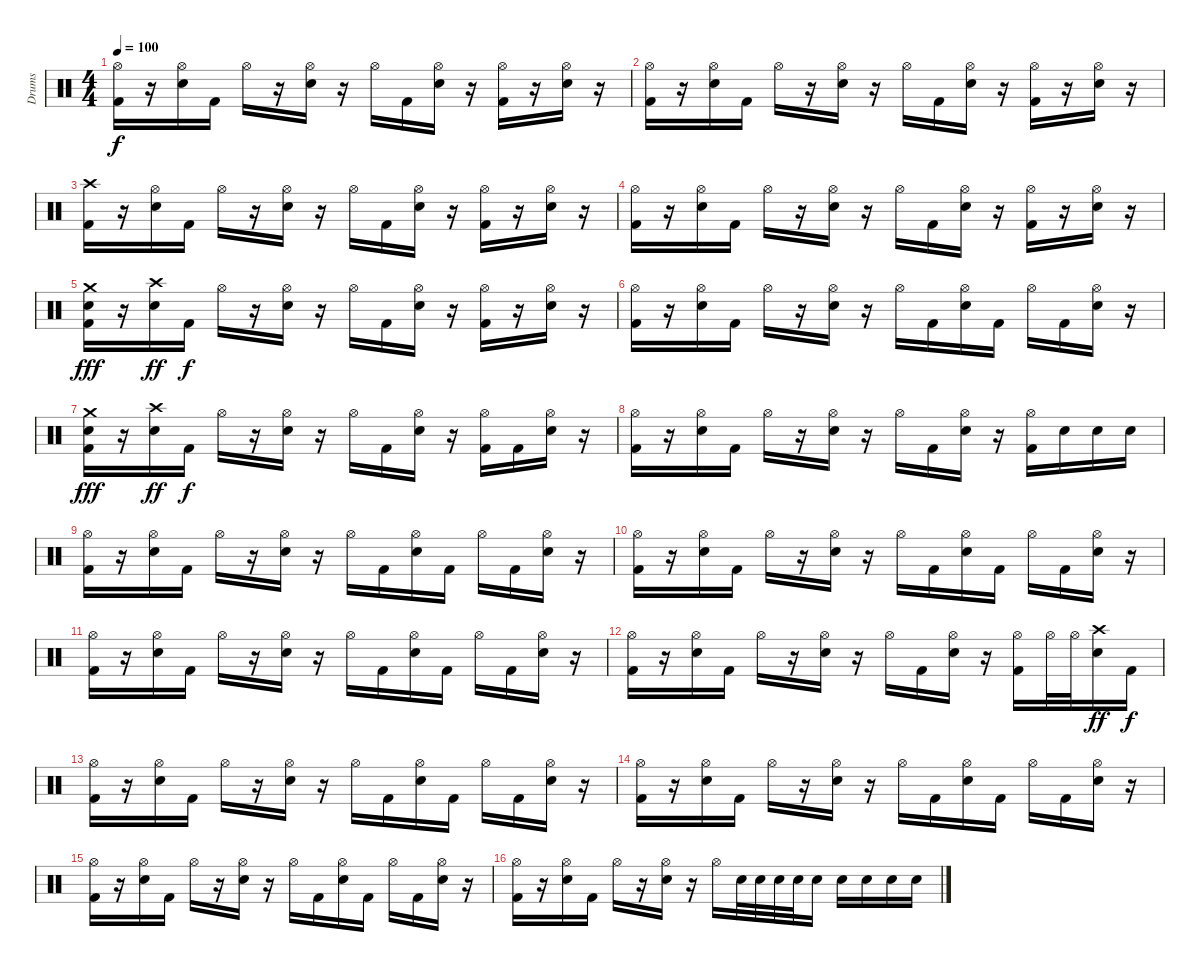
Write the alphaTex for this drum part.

\track ("Drums" "Drums") {instrument percussion}
\staff {score}
\articulation defaults
\ts (4 4)
\tempo 100
\clef neutral
\ks c
("Hi-Hat (open)" "Kick (hit) 2").16{dy f} r.16 ("Hi-Hat (open)" "Electric Snare (hit)").16 "Kick (hit) 2".16 "Hi-Hat (open)".16 r.16 ("Hi-Hat (open)" "Electric Snare (hit)").16 r.16 "Hi-Hat (open)".16 "Kick (hit) 2".16 ("Hi-Hat (open)" "Electric Snare (hit)").16 r.16 ("Hi-Hat (open)" "Kick (hit) 2").16 r.16 ("Hi-Hat (open)" "Electric Snare (hit)").16 r.16 |
("Hi-Hat (open)" "Kick (hit) 2").16 r.16 ("Hi-Hat (open)" "Electric Snare (hit)").16 "Kick (hit) 2".16 "Hi-Hat (open)".16 r.16 ("Hi-Hat (open)" "Electric Snare (hit)").16 r.16 "Hi-Hat (open)".16 "Kick (hit) 2".16 ("Hi-Hat (open)" "Electric Snare (hit)").16 r.16 ("Hi-Hat (open)" "Kick (hit) 2").16 r.16 ("Hi-Hat (open)" "Electric Snare (hit)").16 r.16 |
("Crash high (hit)" "Kick (hit) 2").16 r.16 ("Hi-Hat (open)" "Electric Snare (hit)").16 "Kick (hit) 2".16 "Hi-Hat (open)".16 r.16 ("Hi-Hat (open)" "Electric Snare (hit)").16 r.16 "Hi-Hat (open)".16 "Kick (hit) 2".16 ("Hi-Hat (open)" "Electric Snare (hit)").16 r.16 ("Hi-Hat (open)" "Kick (hit) 2").16 r.16 ("Hi-Hat (open)" "Electric Snare (hit)").16 r.16 |
("Hi-Hat (open)" "Kick (hit) 2").16 r.16 ("Hi-Hat (open)" "Electric Snare (hit)").16 "Kick (hit) 2".16 "Hi-Hat (open)".16 r.16 ("Hi-Hat (open)" "Electric Snare (hit)").16 r.16 "Hi-Hat (open)".16 "Kick (hit) 2".16 ("Hi-Hat (open)" "Electric Snare (hit)").16 r.16 ("Hi-Hat (open)" "Kick (hit) 2").16 r.16 ("Hi-Hat (open)" "Electric Snare (hit)").16 r.16 |
("Crash medium (hit)" "Electric Snare (hit)" "Kick (hit) 2").16{dy fff} r.16 ("Crash high (hit)" "Electric Snare (hit)").16{dy ff} "Kick (hit) 2".16{dy f} "Hi-Hat (open)".16 r.16 ("Hi-Hat (open)" "Electric Snare (hit)").16 r.16 "Hi-Hat (open)".16 "Kick (hit) 2".16 ("Hi-Hat (open)" "Electric Snare (hit)").16 r.16 ("Hi-Hat (open)" "Kick (hit) 2").16 r.16 ("Hi-Hat (open)" "Electric Snare (hit)").16 r.16 |
("Hi-Hat (open)" "Kick (hit) 2").16 r.16 ("Hi-Hat (open)" "Electric Snare (hit)").16 "Kick (hit) 2".16 "Hi-Hat (open)".16 r.16 ("Hi-Hat (open)" "Electric Snare (hit)").16 r.16 "Hi-Hat (open)".16 "Kick (hit) 2".16 ("Hi-Hat (open)" "Electric Snare (hit)").16 "Kick (hit) 2".16 "Hi-Hat (open)".16 "Kick (hit) 2".16 ("Hi-Hat (open)" "Electric Snare (hit)").16 r.16 |
("Crash medium (hit)" "Electric Snare (hit)" "Kick (hit) 2").16{dy fff} r.16 ("Crash high (hit)" "Electric Snare (hit)").16{dy ff} "Kick (hit) 2".16{dy f} "Hi-Hat (open)".16 r.16 ("Hi-Hat (open)" "Electric Snare (hit)").16 r.16 "Hi-Hat (open)".16 "Kick (hit) 2".16 ("Hi-Hat (open)" "Electric Snare (hit)").16 r.16 ("Hi-Hat (open)" "Kick (hit) 2").16 "Kick (hit) 2".16 ("Hi-Hat (open)" "Electric Snare (hit)").16 r.16 |
("Hi-Hat (open)" "Kick (hit) 2").16 r.16 ("Hi-Hat (open)" "Electric Snare (hit)").16 "Kick (hit) 2".16 "Hi-Hat (open)".16 r.16 ("Hi-Hat (open)" "Electric Snare (hit)").16 r.16 "Hi-Hat (open)".16 "Kick (hit) 2".16 ("Hi-Hat (open)" "Electric Snare (hit)").16 r.16 ("Hi-Hat (open)" "Kick (hit) 2").16 "Electric Snare (hit)".16 "Electric Snare (hit)".16 "Electric Snare (hit)".16 |
("Hi-Hat (open)" "Kick (hit) 2").16 r.16 ("Hi-Hat (open)" "Electric Snare (hit)").16 "Kick (hit) 2".16 "Hi-Hat (open)".16 r.16 ("Hi-Hat (open)" "Electric Snare (hit)").16 r.16 "Hi-Hat (open)".16 "Kick (hit) 2".16 ("Hi-Hat (open)" "Electric Snare (hit)").16 "Kick (hit) 2".16 "Hi-Hat (open)".16 "Kick (hit) 2".16 ("Hi-Hat (open)" "Electric Snare (hit)").16 r.16 |
("Hi-Hat (open)" "Kick (hit) 2").16 r.16 ("Hi-Hat (open)" "Electric Snare (hit)").16 "Kick (hit) 2".16 "Hi-Hat (open)".16 r.16 ("Hi-Hat (open)" "Electric Snare (hit)").16 r.16 "Hi-Hat (open)".16 "Kick (hit) 2".16 ("Hi-Hat (open)" "Electric Snare (hit)").16 "Kick (hit) 2".16 "Hi-Hat (open)".16 "Kick (hit) 2".16 ("Hi-Hat (open)" "Electric Snare (hit)").16 r.16 |
("Hi-Hat (open)" "Kick (hit) 2").16 r.16 ("Hi-Hat (open)" "Electric Snare (hit)").16 "Kick (hit) 2".16 "Hi-Hat (open)".16 r.16 ("Hi-Hat (open)" "Electric Snare (hit)").16 r.16 "Hi-Hat (open)".16 "Kick (hit) 2".16 ("Hi-Hat (open)" "Electric Snare (hit)").16 "Kick (hit) 2".16 "Hi-Hat (open)".16 "Kick (hit) 2".16 ("Hi-Hat (open)" "Electric Snare (hit)").16 r.16 |
("Hi-Hat (open)" "Kick (hit) 2").16 r.16 ("Hi-Hat (open)" "Electric Snare (hit)").16 "Kick (hit) 2".16 "Hi-Hat (open)".16 r.16 ("Hi-Hat (open)" "Electric Snare (hit)").16 r.16 "Hi-Hat (open)".16 "Kick (hit) 2".16 ("Hi-Hat (open)" "Electric Snare (hit)").16 r.16 ("Hi-Hat (open)" "Kick (hit) 2").16 "Hi-Hat (open)".32 "Hi-Hat (open)".32 ("Crash high (hit)" "Electric Snare (hit)").16{dy ff} "Kick (hit) 2".16{dy f} |
("Hi-Hat (open)" "Kick (hit) 2").16 r.16 ("Hi-Hat (open)" "Electric Snare (hit)").16 "Kick (hit) 2".16 "Hi-Hat (open)".16 r.16 ("Hi-Hat (open)" "Electric Snare (hit)").16 r.16 "Hi-Hat (open)".16 "Kick (hit) 2".16 ("Hi-Hat (open)" "Electric Snare (hit)").16 "Kick (hit) 2".16 "Hi-Hat (open)".16 "Kick (hit) 2".16 ("Hi-Hat (open)" "Electric Snare (hit)").16 r.16 |
("Hi-Hat (open)" "Kick (hit) 2").16 r.16 ("Hi-Hat (open)" "Electric Snare (hit)").16 "Kick (hit) 2".16 "Hi-Hat (open)".16 r.16 ("Hi-Hat (open)" "Electric Snare (hit)").16 r.16 "Hi-Hat (open)".16 "Kick (hit) 2".16 ("Hi-Hat (open)" "Electric Snare (hit)").16 "Kick (hit) 2".16 "Hi-Hat (open)".16 "Kick (hit) 2".16 ("Hi-Hat (open)" "Electric Snare (hit)").16 r.16 |
("Hi-Hat (open)" "Kick (hit) 2").16 r.16 ("Hi-Hat (open)" "Electric Snare (hit)").16 "Kick (hit) 2".16 "Hi-Hat (open)".16 r.16 ("Hi-Hat (open)" "Electric Snare (hit)").16 r.16 "Hi-Hat (open)".16 "Kick (hit) 2".16 ("Hi-Hat (open)" "Electric Snare (hit)").16 "Kick (hit) 2".16 "Hi-Hat (open)".16 "Kick (hit) 2".16 ("Hi-Hat (open)" "Electric Snare (hit)").16 r.16 |
("Hi-Hat (open)" "Kick (hit) 2").16 r.16 ("Hi-Hat (open)" "Electric Snare (hit)").16 "Kick (hit) 2".16 "Hi-Hat (open)".16 r.16 ("Hi-Hat (open)" "Electric Snare (hit)").16 r.16 "Hi-Hat (open)".16 "Electric Snare (hit)".32 "Electric Snare (hit)".32 "Electric Snare (hit)".32 "Electric Snare (hit)".32 "Electric Snare (hit)".16 "Electric Snare (hit)".16 "Electric Snare (hit)".16 "Electric Snare (hit)".16 "Electric Snare (hit)".16
